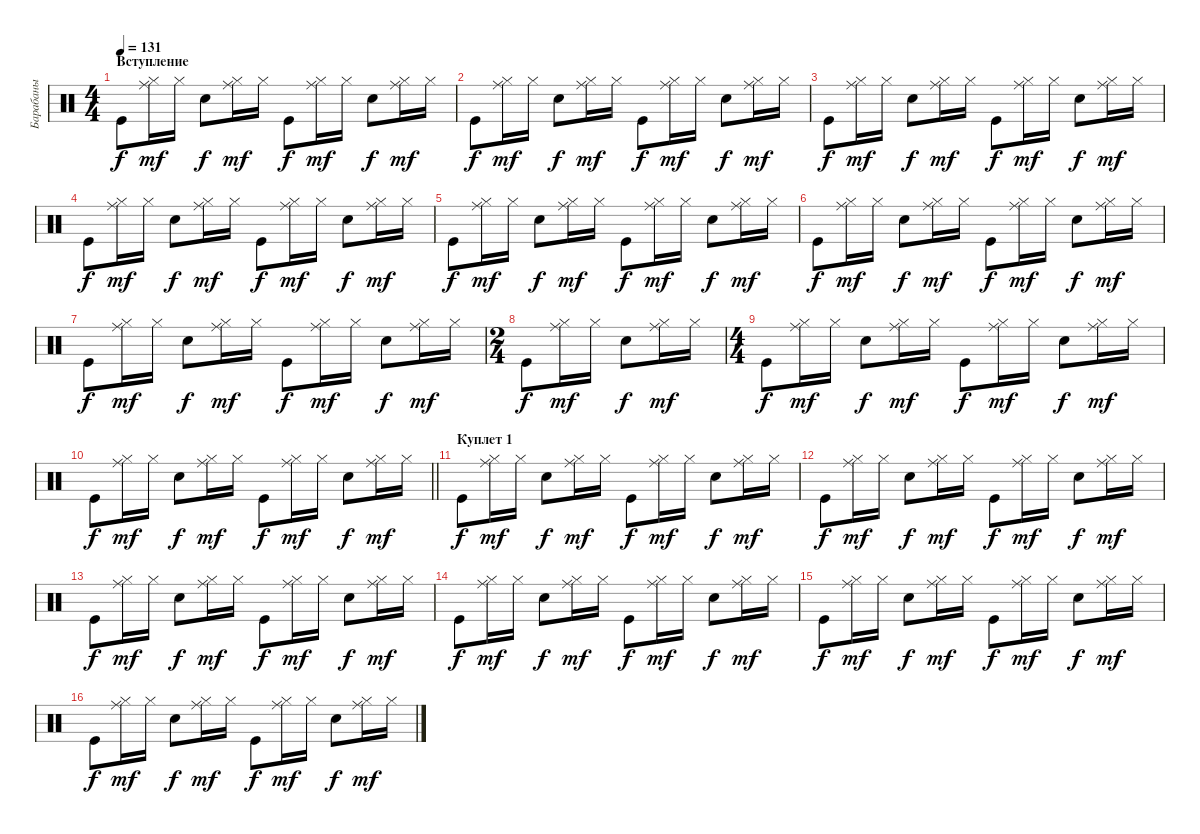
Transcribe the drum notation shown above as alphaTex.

\track ("Барабаны" "Барабаны") {instrument percussion}
\staff {score}
\articulation defaults
\ts (4 4)
\section ("" "Вступление")
\tempo 131
\clef neutral
\ks c "Kick (hit)".8{dy f}
("Hi-Hat (closed)" "Ride (middle)").16{dy mf} "Hi-Hat (closed)".16 "Snare (hit) 2".8{dy f} ("Hi-Hat (closed)" "Ride (middle)").16{dy mf} "Hi-Hat (closed)".16 "Kick (hit)".8{dy f} ("Hi-Hat (closed)" "Ride (middle)").16{dy mf} "Hi-Hat (closed)".16 "Snare (hit) 2".8{dy f} ("Hi-Hat (closed)" "Ride (middle)").16{dy mf} "Hi-Hat (closed)".16 |
"Kick (hit)".8{dy f} ("Hi-Hat (closed)" "Ride (middle)").16{dy mf} "Hi-Hat (closed)".16 "Snare (hit) 2".8{dy f} ("Hi-Hat (closed)" "Ride (middle)").16{dy mf} "Hi-Hat (closed)".16 "Kick (hit)".8{dy f} ("Hi-Hat (closed)" "Ride (middle)").16{dy mf} "Hi-Hat (closed)".16 "Snare (hit) 2".8{dy f} ("Hi-Hat (closed)" "Ride (middle)").16{dy mf} "Hi-Hat (closed)".16 |
"Kick (hit)".8{dy f} ("Hi-Hat (closed)" "Ride (middle)").16{dy mf} "Hi-Hat (closed)".16 "Snare (hit) 2".8{dy f} ("Hi-Hat (closed)" "Ride (middle)").16{dy mf} "Hi-Hat (closed)".16 "Kick (hit)".8{dy f} ("Hi-Hat (closed)" "Ride (middle)").16{dy mf} "Hi-Hat (closed)".16 "Snare (hit) 2".8{dy f} ("Hi-Hat (closed)" "Ride (middle)").16{dy mf} "Hi-Hat (closed)".16 |
"Kick (hit)".8{dy f} ("Hi-Hat (closed)" "Ride (middle)").16{dy mf} "Hi-Hat (closed)".16 "Snare (hit) 2".8{dy f} ("Hi-Hat (closed)" "Ride (middle)").16{dy mf} "Hi-Hat (closed)".16 "Kick (hit)".8{dy f} ("Hi-Hat (closed)" "Ride (middle)").16{dy mf} "Hi-Hat (closed)".16 "Snare (hit) 2".8{dy f} ("Hi-Hat (closed)" "Ride (middle)").16{dy mf} "Hi-Hat (closed)".16 |
"Kick (hit)".8{dy f} ("Hi-Hat (closed)" "Ride (middle)").16{dy mf} "Hi-Hat (closed)".16 "Snare (hit) 2".8{dy f} ("Hi-Hat (closed)" "Ride (middle)").16{dy mf} "Hi-Hat (closed)".16 "Kick (hit)".8{dy f} ("Hi-Hat (closed)" "Ride (middle)").16{dy mf} "Hi-Hat (closed)".16 "Snare (hit) 2".8{dy f} ("Hi-Hat (closed)" "Ride (middle)").16{dy mf} "Hi-Hat (closed)".16 |
"Kick (hit)".8{dy f} ("Hi-Hat (closed)" "Ride (middle)").16{dy mf} "Hi-Hat (closed)".16 "Snare (hit) 2".8{dy f} ("Hi-Hat (closed)" "Ride (middle)").16{dy mf} "Hi-Hat (closed)".16 "Kick (hit)".8{dy f} ("Hi-Hat (closed)" "Ride (middle)").16{dy mf} "Hi-Hat (closed)".16 "Snare (hit) 2".8{dy f} ("Hi-Hat (closed)" "Ride (middle)").16{dy mf} "Hi-Hat (closed)".16 |
"Kick (hit)".8{dy f} ("Hi-Hat (closed)" "Ride (middle)").16{dy mf} "Hi-Hat (closed)".16 "Snare (hit) 2".8{dy f} ("Hi-Hat (closed)" "Ride (middle)").16{dy mf} "Hi-Hat (closed)".16 "Kick (hit)".8{dy f} ("Hi-Hat (closed)" "Ride (middle)").16{dy mf} "Hi-Hat (closed)".16 "Snare (hit) 2".8{dy f} ("Hi-Hat (closed)" "Ride (middle)").16{dy mf} "Hi-Hat (closed)".16 |
\ts (2 4)
"Kick (hit)".8{dy f} ("Hi-Hat (closed)" "Ride (middle)").16{dy mf} "Hi-Hat (closed)".16 "Snare (hit) 2".8{dy f} ("Hi-Hat (closed)" "Ride (middle)").16{dy mf} "Hi-Hat (closed)".16 |
\ts (4 4)
"Kick (hit)".8{dy f} ("Hi-Hat (closed)" "Ride (middle)").16{dy mf} "Hi-Hat (closed)".16 "Snare (hit) 2".8{dy f} ("Hi-Hat (closed)" "Ride (middle)").16{dy mf} "Hi-Hat (closed)".16 "Kick (hit)".8{dy f} ("Hi-Hat (closed)" "Ride (middle)").16{dy mf} "Hi-Hat (closed)".16 "Snare (hit) 2".8{dy f} ("Hi-Hat (closed)" "Ride (middle)").16{dy mf} "Hi-Hat (closed)".16 |
\barLineRight lightlight "Kick (hit)".8{dy f}
("Hi-Hat (closed)" "Ride (middle)").16{dy mf} "Hi-Hat (closed)".16 "Snare (hit) 2".8{dy f} ("Hi-Hat (closed)" "Ride (middle)").16{dy mf} "Hi-Hat (closed)".16 "Kick (hit)".8{dy f} ("Hi-Hat (closed)" "Ride (middle)").16{dy mf} "Hi-Hat (closed)".16 "Snare (hit) 2".8{dy f} ("Hi-Hat (closed)" "Ride (middle)").16{dy mf} "Hi-Hat (closed)".16 |
\section ("" "Куплет 1")
"Kick (hit)".8{dy f} ("Hi-Hat (closed)" "Ride (middle)").16{dy mf} "Hi-Hat (closed)".16 "Snare (hit) 2".8{dy f} ("Hi-Hat (closed)" "Ride (middle)").16{dy mf} "Hi-Hat (closed)".16 "Kick (hit)".8{dy f} ("Hi-Hat (closed)" "Ride (middle)").16{dy mf} "Hi-Hat (closed)".16 "Snare (hit) 2".8{dy f} ("Hi-Hat (closed)" "Ride (middle)").16{dy mf} "Hi-Hat (closed)".16 |
"Kick (hit)".8{dy f} ("Hi-Hat (closed)" "Ride (middle)").16{dy mf} "Hi-Hat (closed)".16 "Snare (hit) 2".8{dy f} ("Hi-Hat (closed)" "Ride (middle)").16{dy mf} "Hi-Hat (closed)".16 "Kick (hit)".8{dy f} ("Hi-Hat (closed)" "Ride (middle)").16{dy mf} "Hi-Hat (closed)".16 "Snare (hit) 2".8{dy f} ("Hi-Hat (closed)" "Ride (middle)").16{dy mf} "Hi-Hat (closed)".16 |
"Kick (hit)".8{dy f} ("Hi-Hat (closed)" "Ride (middle)").16{dy mf} "Hi-Hat (closed)".16 "Snare (hit) 2".8{dy f} ("Hi-Hat (closed)" "Ride (middle)").16{dy mf} "Hi-Hat (closed)".16 "Kick (hit)".8{dy f} ("Hi-Hat (closed)" "Ride (middle)").16{dy mf} "Hi-Hat (closed)".16 "Snare (hit) 2".8{dy f} ("Hi-Hat (closed)" "Ride (middle)").16{dy mf} "Hi-Hat (closed)".16 |
"Kick (hit)".8{dy f} ("Hi-Hat (closed)" "Ride (middle)").16{dy mf} "Hi-Hat (closed)".16 "Snare (hit) 2".8{dy f} ("Hi-Hat (closed)" "Ride (middle)").16{dy mf} "Hi-Hat (closed)".16 "Kick (hit)".8{dy f} ("Hi-Hat (closed)" "Ride (middle)").16{dy mf} "Hi-Hat (closed)".16 "Snare (hit) 2".8{dy f} ("Hi-Hat (closed)" "Ride (middle)").16{dy mf} "Hi-Hat (closed)".16 |
"Kick (hit)".8{dy f} ("Hi-Hat (closed)" "Ride (middle)").16{dy mf} "Hi-Hat (closed)".16 "Snare (hit) 2".8{dy f} ("Hi-Hat (closed)" "Ride (middle)").16{dy mf} "Hi-Hat (closed)".16 "Kick (hit)".8{dy f} ("Hi-Hat (closed)" "Ride (middle)").16{dy mf} "Hi-Hat (closed)".16 "Snare (hit) 2".8{dy f} ("Hi-Hat (closed)" "Ride (middle)").16{dy mf} "Hi-Hat (closed)".16 |
"Kick (hit)".8{dy f} ("Hi-Hat (closed)" "Ride (middle)").16{dy mf} "Hi-Hat (closed)".16 "Snare (hit) 2".8{dy f} ("Hi-Hat (closed)" "Ride (middle)").16{dy mf} "Hi-Hat (closed)".16 "Kick (hit)".8{dy f} ("Hi-Hat (closed)" "Ride (middle)").16{dy mf} "Hi-Hat (closed)".16 "Snare (hit) 2".8{dy f} ("Hi-Hat (closed)" "Ride (middle)").16{dy mf} "Hi-Hat (closed)".16
